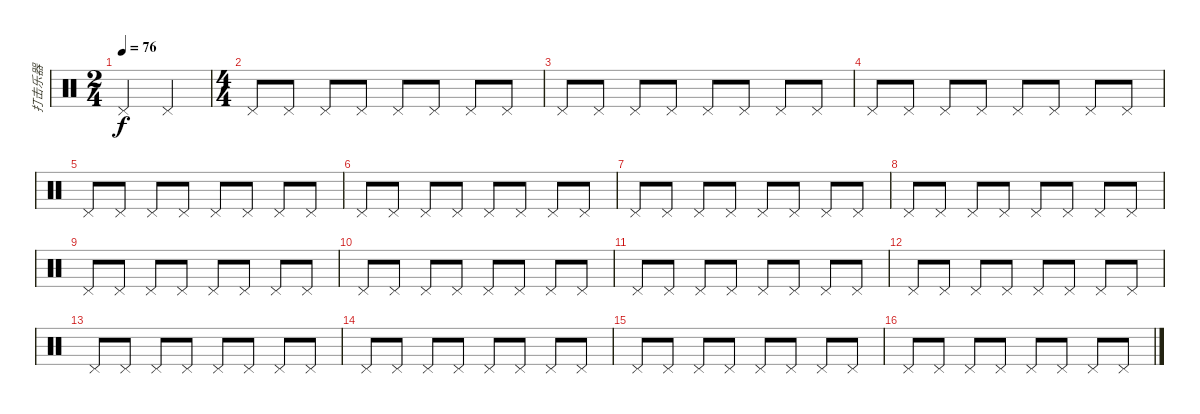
\track ("打击乐器" "打击乐器") {instrument percussion}
\staff {score}
\articulation defaults
\ts (2 4)
\tempo 76
\clef neutral
\ks c "Pedal Hi-Hat (hit)".4{dy f} "Pedal Hi-Hat (hit)".4
|
\ts (4 4)
"Pedal Hi-Hat (hit)".8 "Pedal Hi-Hat (hit)".8 "Pedal Hi-Hat (hit)".8 "Pedal Hi-Hat (hit)".8 "Pedal Hi-Hat (hit)".8 "Pedal Hi-Hat (hit)".8 "Pedal Hi-Hat (hit)".8 "Pedal Hi-Hat (hit)".8 |
"Pedal Hi-Hat (hit)".8 "Pedal Hi-Hat (hit)".8 "Pedal Hi-Hat (hit)".8 "Pedal Hi-Hat (hit)".8 "Pedal Hi-Hat (hit)".8 "Pedal Hi-Hat (hit)".8 "Pedal Hi-Hat (hit)".8 "Pedal Hi-Hat (hit)".8 |
"Pedal Hi-Hat (hit)".8 "Pedal Hi-Hat (hit)".8 "Pedal Hi-Hat (hit)".8 "Pedal Hi-Hat (hit)".8 "Pedal Hi-Hat (hit)".8 "Pedal Hi-Hat (hit)".8 "Pedal Hi-Hat (hit)".8 "Pedal Hi-Hat (hit)".8 |
"Pedal Hi-Hat (hit)".8 "Pedal Hi-Hat (hit)".8 "Pedal Hi-Hat (hit)".8 "Pedal Hi-Hat (hit)".8 "Pedal Hi-Hat (hit)".8 "Pedal Hi-Hat (hit)".8 "Pedal Hi-Hat (hit)".8 "Pedal Hi-Hat (hit)".8 |
"Pedal Hi-Hat (hit)".8 "Pedal Hi-Hat (hit)".8 "Pedal Hi-Hat (hit)".8 "Pedal Hi-Hat (hit)".8 "Pedal Hi-Hat (hit)".8 "Pedal Hi-Hat (hit)".8 "Pedal Hi-Hat (hit)".8 "Pedal Hi-Hat (hit)".8 |
"Pedal Hi-Hat (hit)".8 "Pedal Hi-Hat (hit)".8 "Pedal Hi-Hat (hit)".8 "Pedal Hi-Hat (hit)".8 "Pedal Hi-Hat (hit)".8 "Pedal Hi-Hat (hit)".8 "Pedal Hi-Hat (hit)".8 "Pedal Hi-Hat (hit)".8 |
"Pedal Hi-Hat (hit)".8 "Pedal Hi-Hat (hit)".8 "Pedal Hi-Hat (hit)".8 "Pedal Hi-Hat (hit)".8 "Pedal Hi-Hat (hit)".8 "Pedal Hi-Hat (hit)".8 "Pedal Hi-Hat (hit)".8 "Pedal Hi-Hat (hit)".8 |
"Pedal Hi-Hat (hit)".8 "Pedal Hi-Hat (hit)".8 "Pedal Hi-Hat (hit)".8 "Pedal Hi-Hat (hit)".8 "Pedal Hi-Hat (hit)".8 "Pedal Hi-Hat (hit)".8 "Pedal Hi-Hat (hit)".8 "Pedal Hi-Hat (hit)".8 |
"Pedal Hi-Hat (hit)".8 "Pedal Hi-Hat (hit)".8 "Pedal Hi-Hat (hit)".8 "Pedal Hi-Hat (hit)".8 "Pedal Hi-Hat (hit)".8 "Pedal Hi-Hat (hit)".8 "Pedal Hi-Hat (hit)".8 "Pedal Hi-Hat (hit)".8 |
"Pedal Hi-Hat (hit)".8 "Pedal Hi-Hat (hit)".8 "Pedal Hi-Hat (hit)".8 "Pedal Hi-Hat (hit)".8 "Pedal Hi-Hat (hit)".8 "Pedal Hi-Hat (hit)".8 "Pedal Hi-Hat (hit)".8 "Pedal Hi-Hat (hit)".8 |
"Pedal Hi-Hat (hit)".8 "Pedal Hi-Hat (hit)".8 "Pedal Hi-Hat (hit)".8 "Pedal Hi-Hat (hit)".8 "Pedal Hi-Hat (hit)".8 "Pedal Hi-Hat (hit)".8 "Pedal Hi-Hat (hit)".8 "Pedal Hi-Hat (hit)".8 |
"Pedal Hi-Hat (hit)".8 "Pedal Hi-Hat (hit)".8 "Pedal Hi-Hat (hit)".8 "Pedal Hi-Hat (hit)".8 "Pedal Hi-Hat (hit)".8 "Pedal Hi-Hat (hit)".8 "Pedal Hi-Hat (hit)".8 "Pedal Hi-Hat (hit)".8 |
"Pedal Hi-Hat (hit)".8 "Pedal Hi-Hat (hit)".8 "Pedal Hi-Hat (hit)".8 "Pedal Hi-Hat (hit)".8 "Pedal Hi-Hat (hit)".8 "Pedal Hi-Hat (hit)".8 "Pedal Hi-Hat (hit)".8 "Pedal Hi-Hat (hit)".8 |
"Pedal Hi-Hat (hit)".8 "Pedal Hi-Hat (hit)".8 "Pedal Hi-Hat (hit)".8 "Pedal Hi-Hat (hit)".8 "Pedal Hi-Hat (hit)".8 "Pedal Hi-Hat (hit)".8 "Pedal Hi-Hat (hit)".8 "Pedal Hi-Hat (hit)".8 |
"Pedal Hi-Hat (hit)".8 "Pedal Hi-Hat (hit)".8 "Pedal Hi-Hat (hit)".8 "Pedal Hi-Hat (hit)".8 "Pedal Hi-Hat (hit)".8 "Pedal Hi-Hat (hit)".8 "Pedal Hi-Hat (hit)".8 "Pedal Hi-Hat (hit)".8
